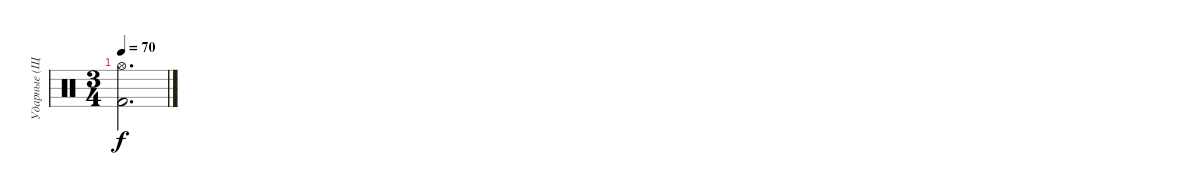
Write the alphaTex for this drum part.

\track ("Ударные (Щетками)" "Ударные (Щ") {instrument percussion}
\staff {score}
\articulation defaults
\ts (3 4)
\tempo 70
\clef neutral
\ks c
("Kick (hit) 2" "Hi-Hat (open)").2{d dy f}
